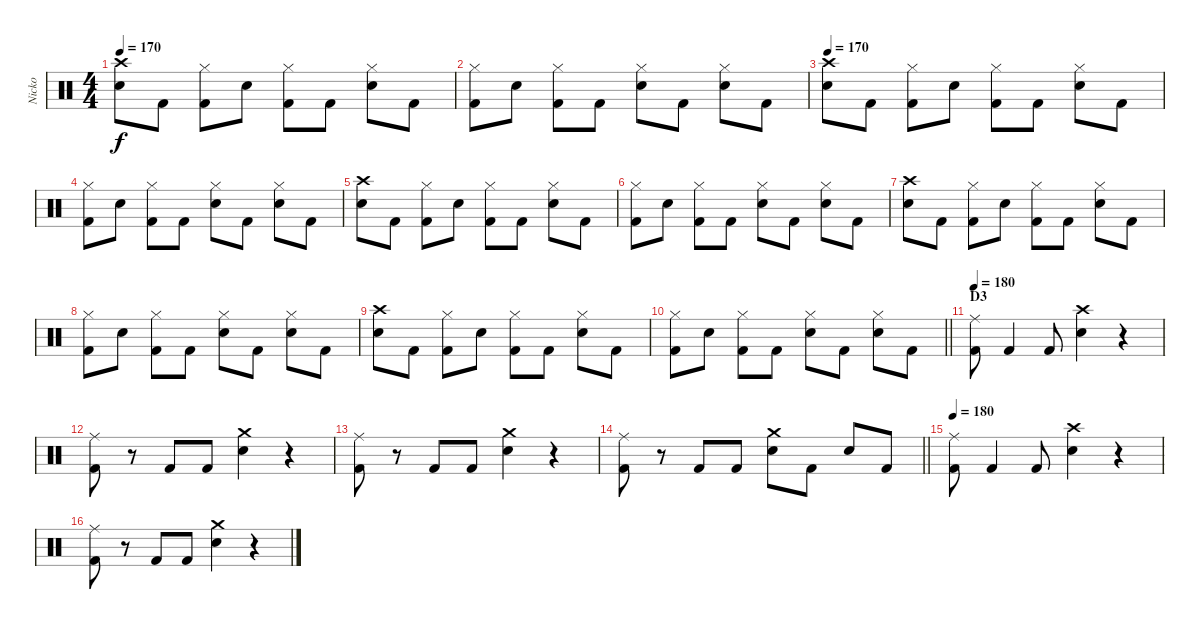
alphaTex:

\track ("Nicko" "Nicko") {instrument percussion}
\staff {score}
\articulation defaults
\ts (4 4)
\tempo 170
\clef neutral
\ks c
("Crash high (hit)" "Snare (hit) 2").8{dy f} "Kick (hit) 2".8 ("Hi-Hat (closed)" "Kick (hit) 2").8 "Snare (hit) 2".8 ("Hi-Hat (closed)" "Kick (hit) 2").8 "Kick (hit) 2".8 ("Hi-Hat (closed)" "Snare (hit) 2").8 "Kick (hit) 2".8 |
("Hi-Hat (closed)" "Kick (hit) 2").8 "Snare (hit) 2".8 ("Hi-Hat (closed)" "Kick (hit) 2").8 "Kick (hit) 2".8 ("Hi-Hat (closed)" "Snare (hit) 2").8 "Kick (hit) 2".8 ("Hi-Hat (closed)" "Snare (hit) 2").8 "Kick (hit) 2".8 |
\tempo 180
\tempo 170
("Crash high (hit)" "Snare (hit) 2").8 "Kick (hit) 2".8 ("Hi-Hat (closed)" "Kick (hit) 2").8 "Snare (hit) 2".8 ("Hi-Hat (closed)" "Kick (hit) 2").8 "Kick (hit) 2".8 ("Hi-Hat (closed)" "Snare (hit) 2").8 "Kick (hit) 2".8 |
("Hi-Hat (closed)" "Kick (hit) 2").8 "Snare (hit) 2".8 ("Hi-Hat (closed)" "Kick (hit) 2").8 "Kick (hit) 2".8 ("Hi-Hat (closed)" "Snare (hit) 2").8 "Kick (hit) 2".8 ("Hi-Hat (closed)" "Snare (hit) 2").8 "Kick (hit) 2".8 |
("Crash high (hit)" "Snare (hit) 2").8 "Kick (hit) 2".8 ("Hi-Hat (closed)" "Kick (hit) 2").8 "Snare (hit) 2".8 ("Hi-Hat (closed)" "Kick (hit) 2").8 "Kick (hit) 2".8 ("Hi-Hat (closed)" "Snare (hit) 2").8 "Kick (hit) 2".8 |
("Hi-Hat (closed)" "Kick (hit) 2").8 "Snare (hit) 2".8 ("Hi-Hat (closed)" "Kick (hit) 2").8 "Kick (hit) 2".8 ("Hi-Hat (closed)" "Snare (hit) 2").8 "Kick (hit) 2".8 ("Hi-Hat (closed)" "Snare (hit) 2").8 "Kick (hit) 2".8 |
("Crash high (hit)" "Snare (hit) 2").8 "Kick (hit) 2".8 ("Hi-Hat (closed)" "Kick (hit) 2").8 "Snare (hit) 2".8 ("Hi-Hat (closed)" "Kick (hit) 2").8 "Kick (hit) 2".8 ("Hi-Hat (closed)" "Snare (hit) 2").8 "Kick (hit) 2".8 |
("Hi-Hat (closed)" "Kick (hit) 2").8 "Snare (hit) 2".8 ("Hi-Hat (closed)" "Kick (hit) 2").8 "Kick (hit) 2".8 ("Hi-Hat (closed)" "Snare (hit) 2").8 "Kick (hit) 2".8 ("Hi-Hat (closed)" "Snare (hit) 2").8 "Kick (hit) 2".8 |
("Crash high (hit)" "Snare (hit) 2").8 "Kick (hit) 2".8 ("Hi-Hat (closed)" "Kick (hit) 2").8 "Snare (hit) 2".8 ("Hi-Hat (closed)" "Kick (hit) 2").8 "Kick (hit) 2".8 ("Hi-Hat (closed)" "Snare (hit) 2").8 "Kick (hit) 2".8 |
\barLineRight lightlight
("Hi-Hat (closed)" "Kick (hit) 2").8 "Snare (hit) 2".8 ("Hi-Hat (closed)" "Kick (hit) 2").8 "Kick (hit) 2".8 ("Hi-Hat (closed)" "Snare (hit) 2").8 "Kick (hit) 2".8 ("Hi-Hat (closed)" "Snare (hit) 2").8 "Kick (hit) 2".8 |
\section ("" "D3")
\tempo 180
("Ride (middle)" "Kick (hit) 2").8 "Kick (hit) 2".4 "Kick (hit) 2".8 ("Crash high (hit)" "Snare (hit) 2").4 r.4 |
("Ride (middle)" "Kick (hit) 2").8 r.8 "Kick (hit) 2".8 "Kick (hit) 2".8 ("Crash medium (hit)" "Snare (hit) 2").4 r.4 |
("Ride (middle)" "Kick (hit) 2").8 r.8 "Kick (hit) 2".8 "Kick (hit) 2".8 ("Crash medium (hit)" "Snare (hit) 2").4 r.4 |
\barLineRight lightlight
("Ride (middle)" "Kick (hit) 2").8 r.8 "Kick (hit) 2".8 "Kick (hit) 2".8 ("Crash medium (hit)" "Snare (hit) 2").8 "Kick (hit) 2".8 "Snare (hit) 2".8 "Kick (hit) 2".8 |
\tempo 180
("Ride (middle)" "Kick (hit) 2").8 "Kick (hit) 2".4 "Kick (hit) 2".8 ("Crash high (hit)" "Snare (hit) 2").4 r.4 |
("Ride (middle)" "Kick (hit) 2").8 r.8 "Kick (hit) 2".8 "Kick (hit) 2".8 ("Crash medium (hit)" "Snare (hit) 2").4 r.4
